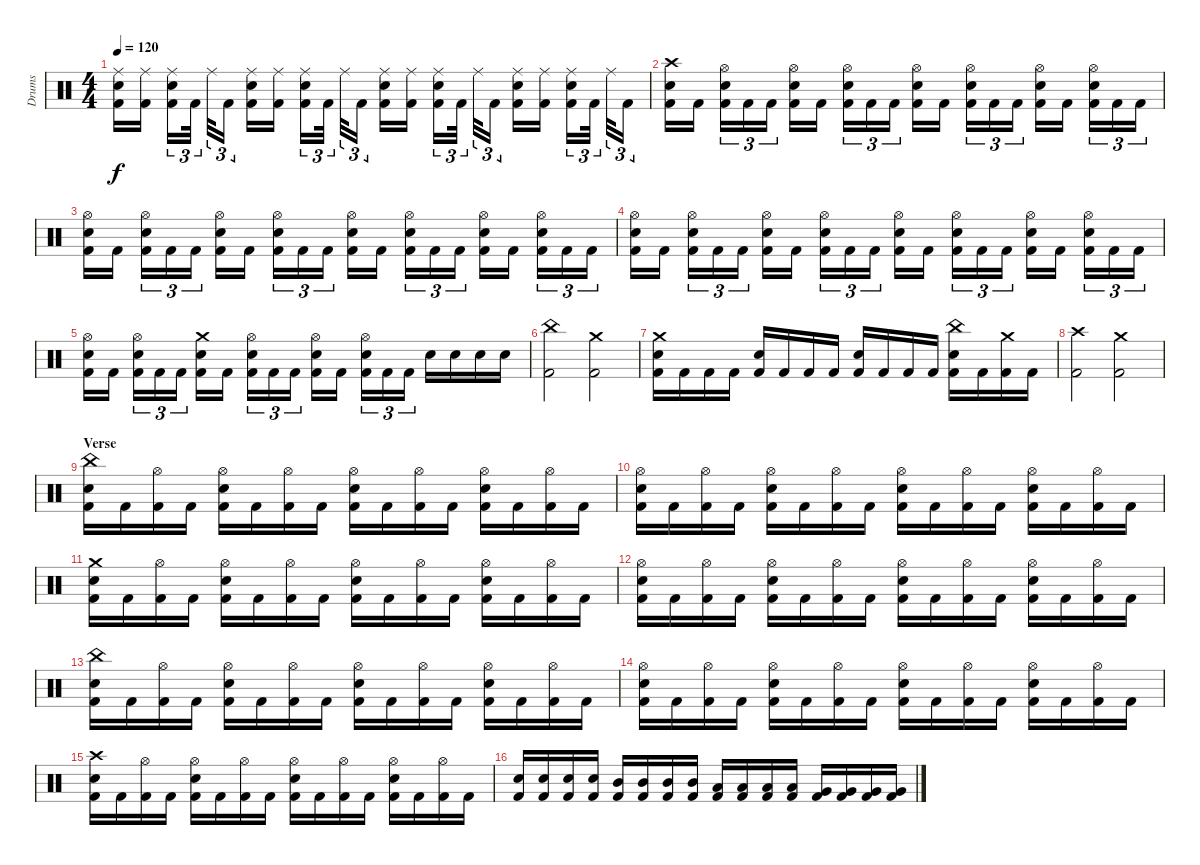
\track ("Drums" "Drums") {instrument percussion}
\staff {score}
\articulation defaults
\ts (4 4)
\tempo 120
\clef neutral
\ks c
("Ride (middle)" "Snare (hit) 2" "Kick (hit) 2").16{dy f} ("Ride (middle)" "Kick (hit) 2").16 ("Ride (middle)" "Snare (hit) 2" "Kick (hit) 2").16{tu (3 2)} "Kick (hit) 2".32{tu (3 2)} "Ride (middle)".32{tu (3 2)} "Kick (hit) 2".16{tu (3 2)} ("Ride (middle)" "Snare (hit) 2" "Kick (hit) 2").16 ("Ride (middle)" "Kick (hit) 2").16 ("Ride (middle)" "Snare (hit) 2" "Kick (hit) 2").16{tu (3 2)} "Kick (hit) 2".32{tu (3 2)} "Ride (middle)".32{tu (3 2)} "Kick (hit) 2".16{tu (3 2)} ("Ride (middle)" "Snare (hit) 2" "Kick (hit) 2").16 ("Ride (middle)" "Kick (hit) 2").16 ("Ride (middle)" "Snare (hit) 2" "Kick (hit) 2").16{tu (3 2)} "Kick (hit) 2".32{tu (3 2)} "Ride (middle)".32{tu (3 2)} "Kick (hit) 2".16{tu (3 2)} ("Ride (middle)" "Snare (hit) 2" "Kick (hit) 2").16 ("Ride (middle)" "Kick (hit) 2").16 ("Ride (middle)" "Snare (hit) 2" "Kick (hit) 2").16{tu (3 2)} "Kick (hit) 2".32{tu (3 2)} "Ride (middle)".32{tu (3 2)} "Kick (hit) 2".16{tu (3 2)} |
("Crash high (hit)" "Snare (hit) 2" "Kick (hit) 2").16 "Kick (hit) 2".16 ("Hi-Hat (open)" "Snare (hit) 2" "Kick (hit) 2").16{tu (3 2)} "Kick (hit) 2".16{tu (3 2)} "Kick (hit) 2".16{tu (3 2)} ("Hi-Hat (open)" "Snare (hit) 2" "Kick (hit) 2").16 "Kick (hit) 2".16 ("Hi-Hat (open)" "Snare (hit) 2" "Kick (hit) 2").16{tu (3 2)} "Kick (hit) 2".16{tu (3 2)} "Kick (hit) 2".16{tu (3 2)} ("Hi-Hat (open)" "Snare (hit) 2" "Kick (hit) 2").16 "Kick (hit) 2".16 ("Hi-Hat (open)" "Snare (hit) 2" "Kick (hit) 2").16{tu (3 2)} "Kick (hit) 2".16{tu (3 2)} "Kick (hit) 2".16{tu (3 2)} ("Hi-Hat (open)" "Snare (hit) 2" "Kick (hit) 2").16 "Kick (hit) 2".16 ("Hi-Hat (open)" "Snare (hit) 2" "Kick (hit) 2").16{tu (3 2)} "Kick (hit) 2".16{tu (3 2)} "Kick (hit) 2".16{tu (3 2)} |
("Hi-Hat (open)" "Snare (hit) 2" "Kick (hit) 2").16 "Kick (hit) 2".16 ("Hi-Hat (open)" "Snare (hit) 2" "Kick (hit) 2").16{tu (3 2)} "Kick (hit) 2".16{tu (3 2)} "Kick (hit) 2".16{tu (3 2)} ("Hi-Hat (open)" "Snare (hit) 2" "Kick (hit) 2").16 "Kick (hit) 2".16 ("Hi-Hat (open)" "Snare (hit) 2" "Kick (hit) 2").16{tu (3 2)} "Kick (hit) 2".16{tu (3 2)} "Kick (hit) 2".16{tu (3 2)} ("Hi-Hat (open)" "Snare (hit) 2" "Kick (hit) 2").16 "Kick (hit) 2".16 ("Hi-Hat (open)" "Snare (hit) 2" "Kick (hit) 2").16{tu (3 2)} "Kick (hit) 2".16{tu (3 2)} "Kick (hit) 2".16{tu (3 2)} ("Hi-Hat (open)" "Snare (hit) 2" "Kick (hit) 2").16 "Kick (hit) 2".16 ("Hi-Hat (open)" "Snare (hit) 2" "Kick (hit) 2").16{tu (3 2)} "Kick (hit) 2".16{tu (3 2)} "Kick (hit) 2".16{tu (3 2)} |
("Hi-Hat (open)" "Snare (hit) 2" "Kick (hit) 2").16 "Kick (hit) 2".16 ("Hi-Hat (open)" "Snare (hit) 2" "Kick (hit) 2").16{tu (3 2)} "Kick (hit) 2".16{tu (3 2)} "Kick (hit) 2".16{tu (3 2)} ("Hi-Hat (open)" "Snare (hit) 2" "Kick (hit) 2").16 "Kick (hit) 2".16 ("Hi-Hat (open)" "Snare (hit) 2" "Kick (hit) 2").16{tu (3 2)} "Kick (hit) 2".16{tu (3 2)} "Kick (hit) 2".16{tu (3 2)} ("Hi-Hat (open)" "Snare (hit) 2" "Kick (hit) 2").16 "Kick (hit) 2".16 ("Hi-Hat (open)" "Snare (hit) 2" "Kick (hit) 2").16{tu (3 2)} "Kick (hit) 2".16{tu (3 2)} "Kick (hit) 2".16{tu (3 2)} ("Hi-Hat (open)" "Snare (hit) 2" "Kick (hit) 2").16 "Kick (hit) 2".16 ("Hi-Hat (open)" "Snare (hit) 2" "Kick (hit) 2").16{tu (3 2)} "Kick (hit) 2".16{tu (3 2)} "Kick (hit) 2".16{tu (3 2)} |
("Hi-Hat (open)" "Snare (hit) 2" "Kick (hit) 2").16 "Kick (hit) 2".16 ("Hi-Hat (open)" "Snare (hit) 2" "Kick (hit) 2").16{tu (3 2)} "Kick (hit) 2".16{tu (3 2)} "Kick (hit) 2".16{tu (3 2)} ("Crash medium (hit)" "Snare (hit) 2" "Kick (hit) 2").16 "Kick (hit) 2".16 ("Hi-Hat (open)" "Snare (hit) 2" "Kick (hit) 2").16{tu (3 2)} "Kick (hit) 2".16{tu (3 2)} "Kick (hit) 2".16{tu (3 2)} ("Hi-Hat (open)" "Snare (hit) 2" "Kick (hit) 2").16 "Kick (hit) 2".16 ("Hi-Hat (open)" "Snare (hit) 2" "Kick (hit) 2").16{tu (3 2)} "Kick (hit) 2".16{tu (3 2)} "Kick (hit) 2".16{tu (3 2)} "Snare (hit) 2".16 "Snare (hit) 2".16 "Snare (hit) 2".16 "Snare (hit) 2".16 |
("China (hit)" "Kick (hit) 2").2 ("Crash medium (hit)" "Kick (hit) 2").2 |
("Crash medium (hit)" "Snare (hit) 2" "Kick (hit) 2").16 "Kick (hit) 2".16 "Kick (hit) 2".16 "Kick (hit) 2".16 ("Snare (hit) 2" "Kick (hit) 2").16 "Kick (hit) 2".16 "Kick (hit) 2".16 "Kick (hit) 2".16 ("Snare (hit) 2" "Kick (hit) 2").16 "Kick (hit) 2".16 "Kick (hit) 2".16 "Kick (hit) 2".16 ("China (hit)" "Snare (hit) 2" "Kick (hit) 2").16 "Kick (hit) 2".16 ("Crash medium (hit)" "Kick (hit) 2").16 "Kick (hit) 2".16 |
("Crash high (hit)" "Kick (hit) 2").2 ("Crash medium (hit)" "Kick (hit) 2").2 |
\section ("" "Verse")
("China (hit)" "Snare (hit) 2" "Kick (hit) 2").16 "Kick (hit) 2".16 ("Hi-Hat (open)" "Kick (hit) 2").16 "Kick (hit) 2".16 ("Hi-Hat (open)" "Snare (hit) 2" "Kick (hit) 2").16 "Kick (hit) 2".16 ("Hi-Hat (open)" "Kick (hit) 2").16 "Kick (hit) 2".16 ("Hi-Hat (open)" "Snare (hit) 2" "Kick (hit) 2").16 "Kick (hit) 2".16 ("Hi-Hat (open)" "Kick (hit) 2").16 "Kick (hit) 2".16 ("Hi-Hat (open)" "Snare (hit) 2" "Kick (hit) 2").16 "Kick (hit) 2".16 ("Hi-Hat (open)" "Kick (hit) 2").16 "Kick (hit) 2".16 |
("Hi-Hat (open)" "Snare (hit) 2" "Kick (hit) 2").16 "Kick (hit) 2".16 ("Hi-Hat (open)" "Kick (hit) 2").16 "Kick (hit) 2".16 ("Hi-Hat (open)" "Snare (hit) 2" "Kick (hit) 2").16 "Kick (hit) 2".16 ("Hi-Hat (open)" "Kick (hit) 2").16 "Kick (hit) 2".16 ("Hi-Hat (open)" "Snare (hit) 2" "Kick (hit) 2").16 "Kick (hit) 2".16 ("Hi-Hat (open)" "Kick (hit) 2").16 "Kick (hit) 2".16 ("Hi-Hat (open)" "Snare (hit) 2" "Kick (hit) 2").16 "Kick (hit) 2".16 ("Hi-Hat (open)" "Kick (hit) 2").16 "Kick (hit) 2".16 |
("Crash medium (hit)" "Snare (hit) 2" "Kick (hit) 2").16 "Kick (hit) 2".16 ("Hi-Hat (open)" "Kick (hit) 2").16 "Kick (hit) 2".16 ("Hi-Hat (open)" "Snare (hit) 2" "Kick (hit) 2").16 "Kick (hit) 2".16 ("Hi-Hat (open)" "Kick (hit) 2").16 "Kick (hit) 2".16 ("Hi-Hat (open)" "Snare (hit) 2" "Kick (hit) 2").16 "Kick (hit) 2".16 ("Hi-Hat (open)" "Kick (hit) 2").16 "Kick (hit) 2".16 ("Hi-Hat (open)" "Snare (hit) 2" "Kick (hit) 2").16 "Kick (hit) 2".16 ("Hi-Hat (open)" "Kick (hit) 2").16 "Kick (hit) 2".16 |
("Hi-Hat (open)" "Snare (hit) 2" "Kick (hit) 2").16 "Kick (hit) 2".16 ("Hi-Hat (open)" "Kick (hit) 2").16 "Kick (hit) 2".16 ("Hi-Hat (open)" "Snare (hit) 2" "Kick (hit) 2").16 "Kick (hit) 2".16 ("Hi-Hat (open)" "Kick (hit) 2").16 "Kick (hit) 2".16 ("Hi-Hat (open)" "Snare (hit) 2" "Kick (hit) 2").16 "Kick (hit) 2".16 ("Hi-Hat (open)" "Kick (hit) 2").16 "Kick (hit) 2".16 ("Hi-Hat (open)" "Snare (hit) 2" "Kick (hit) 2").16 "Kick (hit) 2".16 ("Hi-Hat (open)" "Kick (hit) 2").16 "Kick (hit) 2".16 |
("China (hit)" "Snare (hit) 2" "Kick (hit) 2").16 "Kick (hit) 2".16 ("Hi-Hat (open)" "Kick (hit) 2").16 "Kick (hit) 2".16 ("Hi-Hat (open)" "Snare (hit) 2" "Kick (hit) 2").16 "Kick (hit) 2".16 ("Hi-Hat (open)" "Kick (hit) 2").16 "Kick (hit) 2".16 ("Hi-Hat (open)" "Snare (hit) 2" "Kick (hit) 2").16 "Kick (hit) 2".16 ("Hi-Hat (open)" "Kick (hit) 2").16 "Kick (hit) 2".16 ("Hi-Hat (open)" "Snare (hit) 2" "Kick (hit) 2").16 "Kick (hit) 2".16 ("Hi-Hat (open)" "Kick (hit) 2").16 "Kick (hit) 2".16 |
("Hi-Hat (open)" "Snare (hit) 2" "Kick (hit) 2").16 "Kick (hit) 2".16 ("Hi-Hat (open)" "Kick (hit) 2").16 "Kick (hit) 2".16 ("Hi-Hat (open)" "Snare (hit) 2" "Kick (hit) 2").16 "Kick (hit) 2".16 ("Hi-Hat (open)" "Kick (hit) 2").16 "Kick (hit) 2".16 ("Hi-Hat (open)" "Snare (hit) 2" "Kick (hit) 2").16 "Kick (hit) 2".16 ("Hi-Hat (open)" "Kick (hit) 2").16 "Kick (hit) 2".16 ("Hi-Hat (open)" "Snare (hit) 2" "Kick (hit) 2").16 "Kick (hit) 2".16 ("Hi-Hat (open)" "Kick (hit) 2").16 "Kick (hit) 2".16 |
("Crash high (hit)" "Snare (hit) 2" "Kick (hit) 2").16 "Kick (hit) 2".16 ("Hi-Hat (open)" "Kick (hit) 2").16 "Kick (hit) 2".16 ("Hi-Hat (open)" "Snare (hit) 2" "Kick (hit) 2").16 "Kick (hit) 2".16 ("Hi-Hat (open)" "Kick (hit) 2").16 "Kick (hit) 2".16 ("Hi-Hat (open)" "Snare (hit) 2" "Kick (hit) 2").16 "Kick (hit) 2".16 ("Hi-Hat (open)" "Kick (hit) 2").16 "Kick (hit) 2".16 ("Hi-Hat (open)" "Snare (hit) 2" "Kick (hit) 2").16 "Kick (hit) 2".16 ("Hi-Hat (open)" "Kick (hit) 2").16 "Kick (hit) 2".16 |
("Snare (hit) 2" "Kick (hit) 2").16 ("Snare (hit) 2" "Kick (hit) 2").16 ("Snare (hit) 2" "Kick (hit) 2").16 ("Snare (hit) 2" "Kick (hit) 2").16 ("Mid Tom (hit)" "Kick (hit) 2").16 ("Mid Tom (hit)" "Kick (hit) 2").16 ("Mid Tom (hit)" "Kick (hit) 2").16 ("Mid Tom (hit)" "Kick (hit) 2").16 ("Low Tom (hit)" "Kick (hit) 2").16 ("Low Tom (hit)" "Kick (hit) 2").16 ("Low Tom (hit)" "Kick (hit) 2").16 ("Low Tom (hit)" "Kick (hit) 2").16 ("Very Low Tom (hit)" "Kick (hit) 2").16 ("Very Low Tom (hit)" "Kick (hit) 2").16 ("Very Low Tom (hit)" "Kick (hit) 2").16 ("Very Low Tom (hit)" "Kick (hit) 2").16
